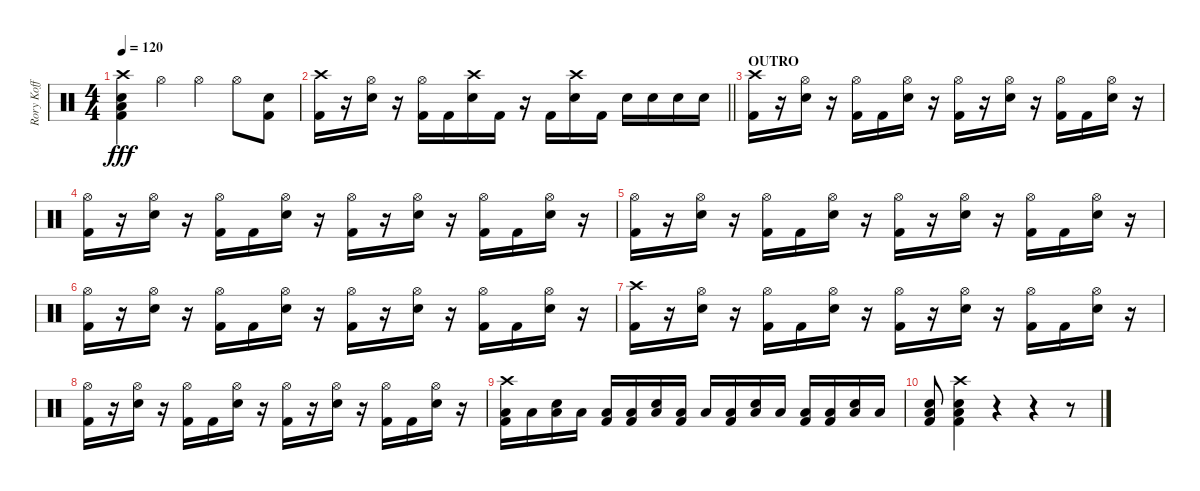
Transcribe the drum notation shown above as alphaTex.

\track ("Rory Koff" "Rory Koff") {instrument percussion}
\staff {score}
\articulation defaults
\ts (4 4)
\tempo 120
\clef neutral
\ks c
("Crash high (hit)" "Low Floor Tom (hit)" "Snare (hit) 2" "Kick (hit) 2").4{dy fff} "Hi-Hat (open)".4 "Hi-Hat (open)".4 "Hi-Hat (open)".8 ("Snare (hit) 2" "Kick (hit) 2").8 |
\barLineRight lightlight
("Crash high (hit)" "Kick (hit) 2").16 r.16 ("Hi-Hat (open)" "Snare (hit) 2").16 r.16 ("Hi-Hat (open)" "Kick (hit) 2").16 "Kick (hit) 2".16 ("Crash high (hit)" "Snare (hit) 2").16 "Kick (hit) 2".16 r.16 "Kick (hit) 2".16 ("Crash high (hit)" "Snare (hit) 2").16 "Kick (hit) 2".16 "Snare (hit) 2".16 "Snare (hit) 2".16 "Snare (hit) 2".16 "Snare (hit) 2".16 |
\section ("" "OUTRO")
("Crash high (hit)" "Kick (hit) 2").16 r.16 ("Hi-Hat (open)" "Snare (hit) 2").16 r.16 ("Hi-Hat (open)" "Kick (hit) 2").16 "Kick (hit) 2".16 ("Hi-Hat (open)" "Snare (hit) 2").16 r.16 ("Hi-Hat (open)" "Kick (hit) 2").16 r.16 ("Hi-Hat (open)" "Snare (hit) 2").16 r.16 ("Hi-Hat (open)" "Kick (hit) 2").16 "Kick (hit) 2".16 ("Hi-Hat (open)" "Snare (hit) 2").16 r.16 |
("Hi-Hat (open)" "Kick (hit) 2").16 r.16 ("Hi-Hat (open)" "Snare (hit) 2").16 r.16 ("Hi-Hat (open)" "Kick (hit) 2").16 "Kick (hit) 2".16 ("Hi-Hat (open)" "Snare (hit) 2").16 r.16 ("Hi-Hat (open)" "Kick (hit) 2").16 r.16 ("Hi-Hat (open)" "Snare (hit) 2").16 r.16 ("Hi-Hat (open)" "Kick (hit) 2").16 "Kick (hit) 2".16 ("Hi-Hat (open)" "Snare (hit) 2").16 r.16 |
("Hi-Hat (open)" "Kick (hit) 2").16 r.16 ("Hi-Hat (open)" "Snare (hit) 2").16 r.16 ("Hi-Hat (open)" "Kick (hit) 2").16 "Kick (hit) 2".16 ("Hi-Hat (open)" "Snare (hit) 2").16 r.16 ("Hi-Hat (open)" "Kick (hit) 2").16 r.16 ("Hi-Hat (open)" "Snare (hit) 2").16 r.16 ("Hi-Hat (open)" "Kick (hit) 2").16 "Kick (hit) 2".16 ("Hi-Hat (open)" "Snare (hit) 2").16 r.16 |
("Hi-Hat (open)" "Kick (hit) 2").16 r.16 ("Hi-Hat (open)" "Snare (hit) 2").16 r.16 ("Hi-Hat (open)" "Kick (hit) 2").16 "Kick (hit) 2".16 ("Hi-Hat (open)" "Snare (hit) 2").16 r.16 ("Hi-Hat (open)" "Kick (hit) 2").16 r.16 ("Hi-Hat (open)" "Snare (hit) 2").16 r.16 ("Hi-Hat (open)" "Kick (hit) 2").16 "Kick (hit) 2".16 ("Hi-Hat (open)" "Snare (hit) 2").16 r.16 |
("Crash high (hit)" "Kick (hit) 2").16 r.16 ("Hi-Hat (open)" "Snare (hit) 2").16 r.16 ("Hi-Hat (open)" "Kick (hit) 2").16 "Kick (hit) 2".16 ("Hi-Hat (open)" "Snare (hit) 2").16 r.16 ("Hi-Hat (open)" "Kick (hit) 2").16 r.16 ("Hi-Hat (open)" "Snare (hit) 2").16 r.16 ("Hi-Hat (open)" "Kick (hit) 2").16 "Kick (hit) 2".16 ("Hi-Hat (open)" "Snare (hit) 2").16 r.16 |
("Hi-Hat (open)" "Kick (hit) 2").16 r.16 ("Hi-Hat (open)" "Snare (hit) 2").16 r.16 ("Hi-Hat (open)" "Kick (hit) 2").16 "Kick (hit) 2".16 ("Hi-Hat (open)" "Snare (hit) 2").16 r.16 ("Hi-Hat (open)" "Kick (hit) 2").16 r.16 ("Hi-Hat (open)" "Snare (hit) 2").16 r.16 ("Hi-Hat (open)" "Kick (hit) 2").16 "Kick (hit) 2".16 ("Hi-Hat (open)" "Snare (hit) 2").16 r.16 |
("Crash high (hit)" "Low Floor Tom (hit)" "Kick (hit) 2").16 "Low Floor Tom (hit)".16 ("Low Floor Tom (hit)" "Snare (hit) 2").16 "Low Floor Tom (hit)".16 ("Low Floor Tom (hit)" "Kick (hit) 2").16 ("Low Floor Tom (hit)" "Kick (hit) 2").16 ("Low Floor Tom (hit)" "Snare (hit) 2").16 ("Low Floor Tom (hit)" "Kick (hit) 2").16 "Low Floor Tom (hit)".16 ("Low Floor Tom (hit)" "Kick (hit) 2").16 ("Low Floor Tom (hit)" "Snare (hit) 2").16 "Low Floor Tom (hit)".16 ("Low Floor Tom (hit)" "Kick (hit) 2").16 ("Low Floor Tom (hit)" "Kick (hit) 2").16 ("Low Floor Tom (hit)" "Snare (hit) 2").16 "Low Floor Tom (hit)".16 |
("Low Floor Tom (hit)" "Snare (hit) 2" "Kick (hit) 2").8 ("Crash high (hit)" "Low Floor Tom (hit)" "Snare (hit) 2" "Kick (hit) 2").4 r.4 r.4 r.8
